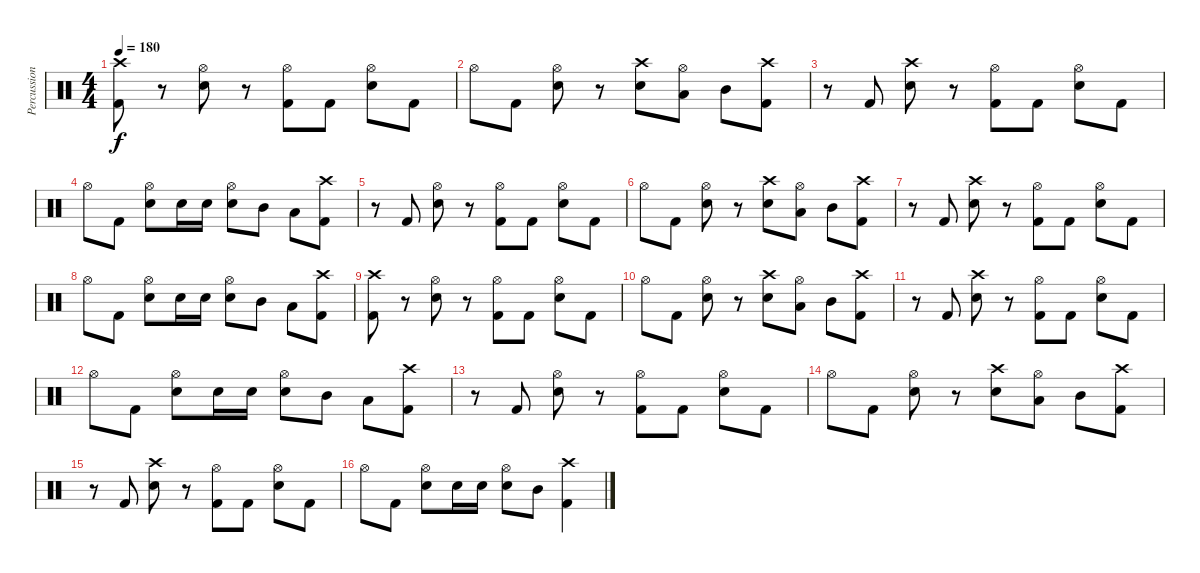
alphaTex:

\track ("Percussion" "Percussion") {instrument percussion}
\staff {score}
\articulation defaults
\ts (4 4)
\tempo 180
\clef neutral
\ks c
("Crash high (hit)" "Kick (hit) 2").8{dy f} r.8 ("Hi-Hat (open)" "Electric Snare (hit)").8 r.8 ("Hi-Hat (open)" "Kick (hit) 2").8 "Kick (hit) 2".8 ("Hi-Hat (open)" "Electric Snare (hit)").8 "Kick (hit) 2".8 |
"Hi-Hat (open)".8 "Kick (hit) 2".8 ("Hi-Hat (open)" "Electric Snare (hit)").8 r.8 ("Crash high (hit)" "Electric Snare (hit)").8 ("Hi-Hat (open)" "Low Tom (hit)").8 "Mid Tom (hit)".8 ("Crash high (hit)" "Kick (hit) 2").8 |
r.8 "Kick (hit) 2".8 ("Crash high (hit)" "Electric Snare (hit)").8 r.8 ("Hi-Hat (open)" "Kick (hit) 2").8 "Kick (hit) 2".8 ("Hi-Hat (open)" "Electric Snare (hit)").8 "Kick (hit) 2".8 |
"Hi-Hat (open)".8 "Kick (hit) 2".8 ("Hi-Hat (open)" "Electric Snare (hit)").8 "Electric Snare (hit)".16 "Electric Snare (hit)".16 ("Hi-Hat (open)" "Electric Snare (hit)").8 "Mid Tom (hit)".8 "Low Tom (hit)".8 ("Crash high (hit)" "Kick (hit) 2").8 |
r.8 "Kick (hit) 2".8 ("Hi-Hat (open)" "Electric Snare (hit)").8 r.8 ("Hi-Hat (open)" "Kick (hit) 2").8 "Kick (hit) 2".8 ("Hi-Hat (open)" "Electric Snare (hit)").8 "Kick (hit) 2".8 |
"Hi-Hat (open)".8 "Kick (hit) 2".8 ("Hi-Hat (open)" "Electric Snare (hit)").8 r.8 ("Crash high (hit)" "Electric Snare (hit)").8 ("Hi-Hat (open)" "Low Tom (hit)").8 "Mid Tom (hit)".8 ("Crash high (hit)" "Kick (hit) 2").8 |
r.8 "Kick (hit) 2".8 ("Crash high (hit)" "Electric Snare (hit)").8 r.8 ("Hi-Hat (open)" "Kick (hit) 2").8 "Kick (hit) 2".8 ("Hi-Hat (open)" "Electric Snare (hit)").8 "Kick (hit) 2".8 |
"Hi-Hat (open)".8 "Kick (hit) 2".8 ("Hi-Hat (open)" "Electric Snare (hit)").8 "Electric Snare (hit)".16 "Electric Snare (hit)".16 ("Hi-Hat (open)" "Electric Snare (hit)").8 "Mid Tom (hit)".8 "Low Tom (hit)".8 ("Crash high (hit)" "Kick (hit) 2").8 |
("Crash high (hit)" "Kick (hit) 2").8 r.8 ("Hi-Hat (open)" "Electric Snare (hit)").8 r.8 ("Hi-Hat (open)" "Kick (hit) 2").8 "Kick (hit) 2".8 ("Hi-Hat (open)" "Electric Snare (hit)").8 "Kick (hit) 2".8 |
"Hi-Hat (open)".8 "Kick (hit) 2".8 ("Hi-Hat (open)" "Electric Snare (hit)").8 r.8 ("Crash high (hit)" "Electric Snare (hit)").8 ("Hi-Hat (open)" "Low Tom (hit)").8 "Mid Tom (hit)".8 ("Crash high (hit)" "Kick (hit) 2").8 |
r.8 "Kick (hit) 2".8 ("Crash high (hit)" "Electric Snare (hit)").8 r.8 ("Hi-Hat (open)" "Kick (hit) 2").8 "Kick (hit) 2".8 ("Hi-Hat (open)" "Electric Snare (hit)").8 "Kick (hit) 2".8 |
"Hi-Hat (open)".8 "Kick (hit) 2".8 ("Hi-Hat (open)" "Electric Snare (hit)").8 "Electric Snare (hit)".16 "Electric Snare (hit)".16 ("Hi-Hat (open)" "Electric Snare (hit)").8 "Mid Tom (hit)".8 "Low Tom (hit)".8 ("Crash high (hit)" "Kick (hit) 2").8 |
r.8 "Kick (hit) 2".8 ("Hi-Hat (open)" "Electric Snare (hit)").8 r.8 ("Hi-Hat (open)" "Kick (hit) 2").8 "Kick (hit) 2".8 ("Hi-Hat (open)" "Electric Snare (hit)").8 "Kick (hit) 2".8 |
"Hi-Hat (open)".8 "Kick (hit) 2".8 ("Hi-Hat (open)" "Electric Snare (hit)").8 r.8 ("Crash high (hit)" "Electric Snare (hit)").8 ("Hi-Hat (open)" "Low Tom (hit)").8 "Mid Tom (hit)".8 ("Crash high (hit)" "Kick (hit) 2").8 |
r.8 "Kick (hit) 2".8 ("Crash high (hit)" "Electric Snare (hit)").8 r.8 ("Hi-Hat (open)" "Kick (hit) 2").8 "Kick (hit) 2".8 ("Hi-Hat (open)" "Electric Snare (hit)").8 "Kick (hit) 2".8 |
"Hi-Hat (open)".8 "Kick (hit) 2".8 ("Hi-Hat (open)" "Electric Snare (hit)").8 "Electric Snare (hit)".16 "Electric Snare (hit)".16 ("Hi-Hat (open)" "Electric Snare (hit)").8 "Mid Tom (hit)".8 ("Crash high (hit)" "Kick (hit) 2").4
